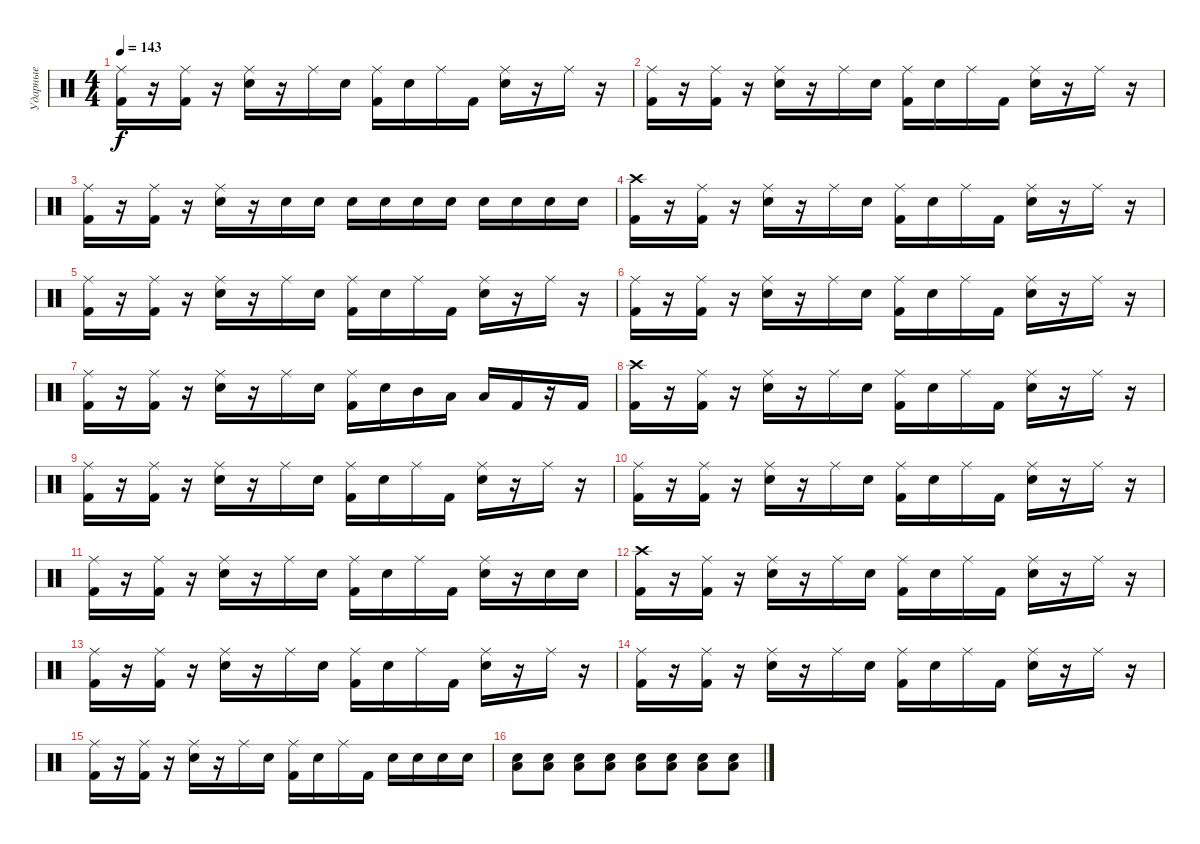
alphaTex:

\track ("Ударные" "Ударные") {instrument percussion}
\staff {score}
\articulation defaults
\ts (4 4)
\tempo 143
\clef neutral
\ks c
("Kick (hit) 2" "Ride (middle)").16{dy f} r.16 ("Kick (hit) 2" "Ride (middle)").16 r.16 ("Electric Snare (hit)" "Ride (middle)").16 r.16 "Ride (middle)".16 "Electric Snare (hit)".16 ("Kick (hit) 2" "Ride (middle)").16 "Electric Snare (hit)".16 "Ride (middle)".16 "Kick (hit) 2".16 ("Electric Snare (hit)" "Ride (middle)").16 r.16 "Ride (middle)".16 r.16 |
("Kick (hit) 2" "Ride (middle)").16 r.16 ("Kick (hit) 2" "Ride (middle)").16 r.16 ("Electric Snare (hit)" "Ride (middle)").16 r.16 "Ride (middle)".16 "Electric Snare (hit)".16 ("Kick (hit) 2" "Ride (middle)").16 "Electric Snare (hit)".16 "Ride (middle)".16 "Kick (hit) 2".16 ("Electric Snare (hit)" "Ride (middle)").16 r.16 "Ride (middle)".16 r.16 |
("Kick (hit) 2" "Ride (middle)").16 r.16 ("Kick (hit) 2" "Ride (middle)").16 r.16 ("Electric Snare (hit)" "Ride (middle)").16 r.16 "Electric Snare (hit)".16 "Electric Snare (hit)".16 "Electric Snare (hit)".16 "Electric Snare (hit)".16 "Electric Snare (hit)".16 "Electric Snare (hit)".16 "Electric Snare (hit)".16 "Electric Snare (hit)".16 "Electric Snare (hit)".16 "Electric Snare (hit)".16 |
("Kick (hit) 2" "Crash high (hit)").16 r.16 ("Kick (hit) 2" "Ride (middle)").16 r.16 ("Electric Snare (hit)" "Ride (middle)").16 r.16 "Ride (middle)".16 "Electric Snare (hit)".16 ("Kick (hit) 2" "Ride (middle)").16 "Electric Snare (hit)".16 "Ride (middle)".16 "Kick (hit) 2".16 ("Electric Snare (hit)" "Ride (middle)").16 r.16 "Ride (middle)".16 r.16 |
("Kick (hit) 2" "Ride (middle)").16 r.16 ("Kick (hit) 2" "Ride (middle)").16 r.16 ("Electric Snare (hit)" "Ride (middle)").16 r.16 "Ride (middle)".16 "Electric Snare (hit)".16 ("Kick (hit) 2" "Ride (middle)").16 "Electric Snare (hit)".16 "Ride (middle)".16 "Kick (hit) 2".16 ("Electric Snare (hit)" "Ride (middle)").16 r.16 "Ride (middle)".16 r.16 |
("Kick (hit) 2" "Ride (middle)").16 r.16 ("Kick (hit) 2" "Ride (middle)").16 r.16 ("Electric Snare (hit)" "Ride (middle)").16 r.16 "Ride (middle)".16 "Electric Snare (hit)".16 ("Kick (hit) 2" "Ride (middle)").16 "Electric Snare (hit)".16 "Ride (middle)".16 "Kick (hit) 2".16 ("Electric Snare (hit)" "Ride (middle)").16 r.16 "Ride (middle)".16 r.16 |
("Kick (hit) 2" "Ride (middle)").16 r.16 ("Kick (hit) 2" "Ride (middle)").16 r.16 ("Electric Snare (hit)" "Ride (middle)").16 r.16 "Ride (middle)".16 "Electric Snare (hit)".16 ("Kick (hit) 2" "Ride (middle)").16 "Electric Snare (hit)".16 "Mid Tom (hit)".16 "Low Tom (hit)".16 "Low Tom (hit)".16 "Kick (hit) 2".16 r.16 "Kick (hit) 2".16 |
("Kick (hit) 2" "Crash high (hit)").16 r.16 ("Kick (hit) 2" "Ride (middle)").16 r.16 ("Electric Snare (hit)" "Ride (middle)").16 r.16 "Ride (middle)".16 "Electric Snare (hit)".16 ("Kick (hit) 2" "Ride (middle)").16 "Electric Snare (hit)".16 "Ride (middle)".16 "Kick (hit) 2".16 ("Electric Snare (hit)" "Ride (middle)").16 r.16 "Ride (middle)".16 r.16 |
("Kick (hit) 2" "Ride (middle)").16 r.16 ("Kick (hit) 2" "Ride (middle)").16 r.16 ("Electric Snare (hit)" "Ride (middle)").16 r.16 "Ride (middle)".16 "Electric Snare (hit)".16 ("Kick (hit) 2" "Ride (middle)").16 "Electric Snare (hit)".16 "Ride (middle)".16 "Kick (hit) 2".16 ("Electric Snare (hit)" "Ride (middle)").16 r.16 "Ride (middle)".16 r.16 |
("Kick (hit) 2" "Ride (middle)").16 r.16 ("Kick (hit) 2" "Ride (middle)").16 r.16 ("Electric Snare (hit)" "Ride (middle)").16 r.16 "Ride (middle)".16 "Electric Snare (hit)".16 ("Kick (hit) 2" "Ride (middle)").16 "Electric Snare (hit)".16 "Ride (middle)".16 "Kick (hit) 2".16 ("Electric Snare (hit)" "Ride (middle)").16 r.16 "Ride (middle)".16 r.16 |
("Kick (hit) 2" "Ride (middle)").16 r.16 ("Kick (hit) 2" "Ride (middle)").16 r.16 ("Electric Snare (hit)" "Ride (middle)").16 r.16 "Ride (middle)".16 "Electric Snare (hit)".16 ("Kick (hit) 2" "Ride (middle)").16 "Electric Snare (hit)".16 "Ride (middle)".16 "Kick (hit) 2".16 ("Electric Snare (hit)" "Ride (middle)").16 r.16 "Electric Snare (hit)".16 "Electric Snare (hit)".16 |
("Kick (hit) 2" "Crash high (hit)").16 r.16 ("Kick (hit) 2" "Ride (middle)").16 r.16 ("Electric Snare (hit)" "Ride (middle)").16 r.16 "Ride (middle)".16 "Electric Snare (hit)".16 ("Kick (hit) 2" "Ride (middle)").16 "Electric Snare (hit)".16 "Ride (middle)".16 "Kick (hit) 2".16 ("Electric Snare (hit)" "Ride (middle)").16 r.16 "Ride (middle)".16 r.16 |
("Kick (hit) 2" "Ride (middle)").16 r.16 ("Kick (hit) 2" "Ride (middle)").16 r.16 ("Electric Snare (hit)" "Ride (middle)").16 r.16 "Ride (middle)".16 "Electric Snare (hit)".16 ("Kick (hit) 2" "Ride (middle)").16 "Electric Snare (hit)".16 "Ride (middle)".16 "Kick (hit) 2".16 ("Electric Snare (hit)" "Ride (middle)").16 r.16 "Ride (middle)".16 r.16 |
("Kick (hit) 2" "Ride (middle)").16 r.16 ("Kick (hit) 2" "Ride (middle)").16 r.16 ("Electric Snare (hit)" "Ride (middle)").16 r.16 "Ride (middle)".16 "Electric Snare (hit)".16 ("Kick (hit) 2" "Ride (middle)").16 "Electric Snare (hit)".16 "Ride (middle)".16 "Kick (hit) 2".16 ("Electric Snare (hit)" "Ride (middle)").16 r.16 "Ride (middle)".16 r.16 |
("Kick (hit) 2" "Ride (middle)").16 r.16 ("Kick (hit) 2" "Ride (middle)").16 r.16 ("Electric Snare (hit)" "Ride (middle)").16 r.16 "Ride (middle)".16 "Electric Snare (hit)".16 ("Kick (hit) 2" "Ride (middle)").16 "Electric Snare (hit)".16 "Ride (middle)".16 "Kick (hit) 2".16 "Electric Snare (hit)".16 "Electric Snare (hit)".16 "Electric Snare (hit)".16 "Electric Snare (hit)".16 |
("Low Tom (hit)" "Electric Snare (hit)").8 ("Low Tom (hit)" "Electric Snare (hit)").8 ("Low Tom (hit)" "Electric Snare (hit)").8 ("Low Tom (hit)" "Electric Snare (hit)").8 ("Low Tom (hit)" "Electric Snare (hit)").8 ("Low Tom (hit)" "Electric Snare (hit)").8 ("Low Tom (hit)" "Electric Snare (hit)").8 ("Low Tom (hit)" "Electric Snare (hit)").8
